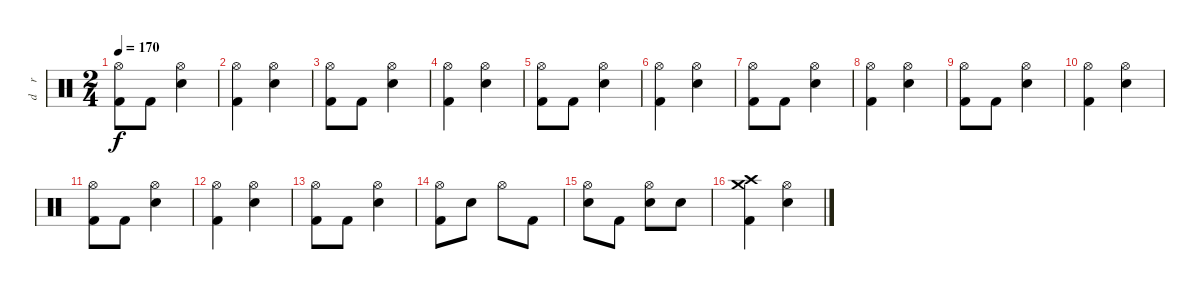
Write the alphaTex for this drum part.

\track ("d    r     u     m    s" "d    r    ") {instrument percussion}
\staff {score}
\articulation defaults
\ts (2 4)
\tempo 170
\clef neutral
\ks c
("Hi-Hat (open)" "Kick (hit) 2").8{dy f} "Kick (hit) 2".8 ("Hi-Hat (open)" "Electric Snare (hit)").4 |
("Hi-Hat (open)" "Kick (hit) 2").4 ("Hi-Hat (open)" "Electric Snare (hit)").4 |
("Hi-Hat (open)" "Kick (hit) 2").8 "Kick (hit) 2".8 ("Hi-Hat (open)" "Electric Snare (hit)").4 |
("Hi-Hat (open)" "Kick (hit) 2").4 ("Hi-Hat (open)" "Electric Snare (hit)").4 |
("Hi-Hat (open)" "Kick (hit) 2").8 "Kick (hit) 2".8 ("Hi-Hat (open)" "Electric Snare (hit)").4 |
("Hi-Hat (open)" "Kick (hit) 2").4 ("Hi-Hat (open)" "Electric Snare (hit)").4 |
("Hi-Hat (open)" "Kick (hit) 2").8 "Kick (hit) 2".8 ("Hi-Hat (open)" "Electric Snare (hit)").4 |
("Hi-Hat (open)" "Kick (hit) 2").4 ("Hi-Hat (open)" "Electric Snare (hit)").4 |
("Hi-Hat (open)" "Kick (hit) 2").8 "Kick (hit) 2".8 ("Hi-Hat (open)" "Electric Snare (hit)").4 |
("Hi-Hat (open)" "Kick (hit) 2").4 ("Hi-Hat (open)" "Electric Snare (hit)").4 |
("Hi-Hat (open)" "Kick (hit) 2").8 "Kick (hit) 2".8 ("Hi-Hat (open)" "Electric Snare (hit)").4 |
("Hi-Hat (open)" "Kick (hit) 2").4 ("Hi-Hat (open)" "Electric Snare (hit)").4 |
("Hi-Hat (open)" "Kick (hit) 2").8 "Kick (hit) 2".8 ("Hi-Hat (open)" "Electric Snare (hit)").4 |
("Hi-Hat (open)" "Kick (hit) 2").8 "Electric Snare (hit)".8 "Hi-Hat (open)".8 "Kick (hit) 2".8 |
("Hi-Hat (open)" "Electric Snare (hit)").8 "Kick (hit) 2".8 ("Hi-Hat (open)" "Electric Snare (hit)").8 "Electric Snare (hit)".8 |
("Crash high (hit)" "Crash medium (hit)" "Kick (hit) 2").4 ("Hi-Hat (open)" "Electric Snare (hit)").4
